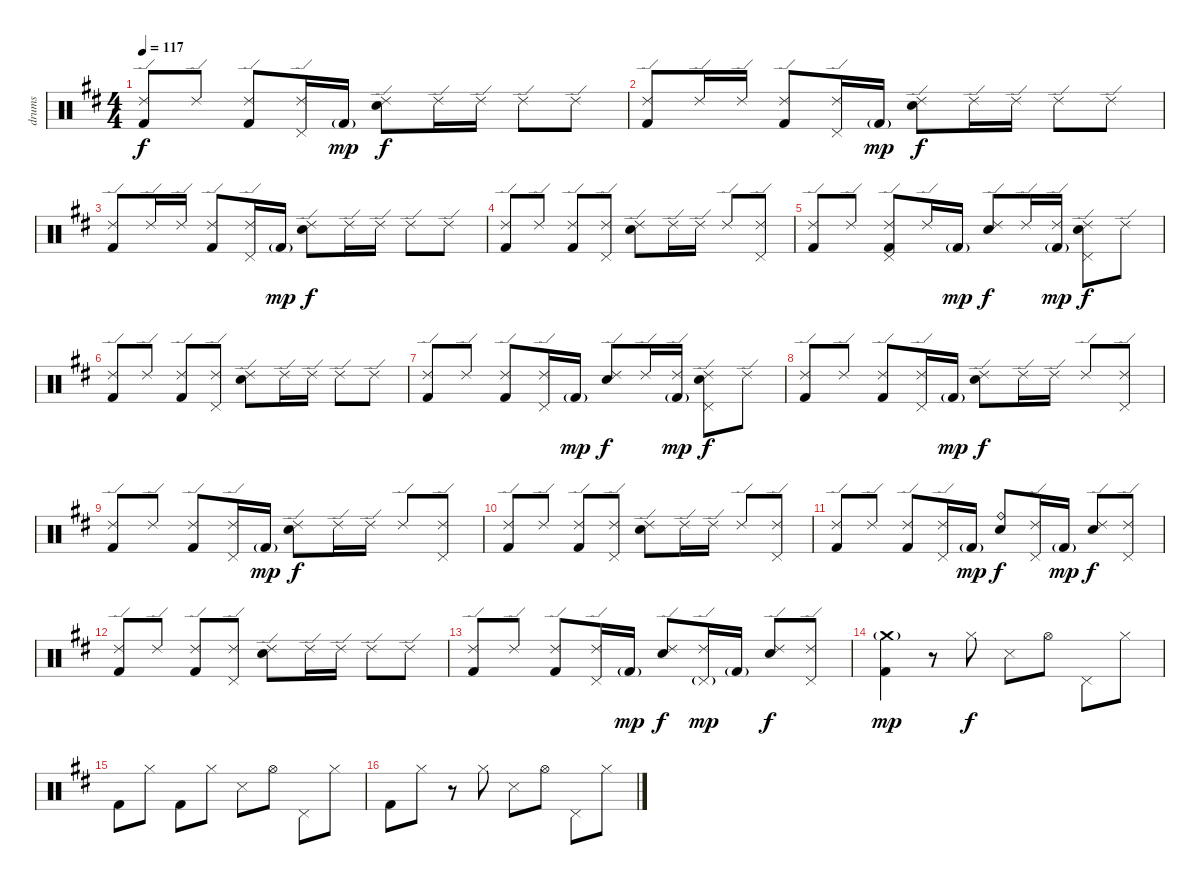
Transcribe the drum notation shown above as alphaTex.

\track ("drums" "drums") {instrument percussion}
\staff {score}
\articulation defaults
\ts (4 4)
\tempo 117
\clef neutral
\ks d
("Ride (edge) 2" "Kick (hit) 2").8{dy f} "Ride (edge) 2".8 ("Ride (edge) 2" "Kick (hit) 2").8 ("Ride (edge) 2" "Pedal Hi-Hat (hit)").16 "Kick (hit) 2"{g}.16{dy mp} ("Ride (edge) 2" "Electric Snare (hit)").8{dy f} "Ride (edge) 2".16 "Ride (edge) 2".16 "Ride (edge) 2".8 "Ride (edge) 2".8 |
("Ride (edge) 2" "Kick (hit) 2").8 "Ride (edge) 2".16 "Ride (edge) 2".16 ("Ride (edge) 2" "Kick (hit) 2").8 ("Ride (edge) 2" "Pedal Hi-Hat (hit)").16 "Kick (hit) 2"{g}.16{dy mp} ("Ride (edge) 2" "Electric Snare (hit)").8{dy f} "Ride (edge) 2".16 "Ride (edge) 2".16 "Ride (edge) 2".8 "Ride (edge) 2".8 |
("Ride (edge) 2" "Kick (hit) 2").8 "Ride (edge) 2".16 "Ride (edge) 2".16 ("Ride (edge) 2" "Kick (hit) 2").8 ("Ride (edge) 2" "Pedal Hi-Hat (hit)").16 "Kick (hit) 2"{g}.16{dy mp} ("Ride (edge) 2" "Electric Snare (hit)").8{dy f} "Ride (edge) 2".16 "Ride (edge) 2".16 "Ride (edge) 2".8 "Ride (edge) 2".8 |
("Ride (edge) 2" "Kick (hit) 2").8 "Ride (edge) 2".8 ("Ride (edge) 2" "Kick (hit) 2").8 ("Ride (edge) 2" "Pedal Hi-Hat (hit)").8 ("Ride (edge) 2" "Electric Snare (hit)").8 "Ride (edge) 2".16 "Ride (edge) 2".16 "Ride (edge) 2".8 ("Ride (edge) 2" "Pedal Hi-Hat (hit)").8 |
("Ride (edge) 2" "Kick (hit) 2").8 "Ride (edge) 2".8 ("Ride (edge) 2" "Pedal Hi-Hat (hit)" "Kick (hit) 2").8 "Ride (edge) 2".16 "Kick (hit) 2"{g}.16{dy mp} ("Ride (edge) 2" "Electric Snare (hit)").8{dy f} "Ride (edge) 2".16 ("Ride (edge) 2" "Kick (hit) 2"{g}).16{dy mp} ("Ride (edge) 2" "Pedal Hi-Hat (hit)" "Electric Snare (hit)").8{dy f} "Ride (edge) 2".8 |
("Ride (edge) 2" "Kick (hit) 2").8 "Ride (edge) 2".8 ("Ride (edge) 2" "Kick (hit) 2").8 ("Ride (edge) 2" "Pedal Hi-Hat (hit)").8 ("Ride (edge) 2" "Electric Snare (hit)").8 "Ride (edge) 2".16 "Ride (edge) 2".16 "Ride (edge) 2".8 "Ride (edge) 2".8 |
("Ride (edge) 2" "Kick (hit) 2").8 "Ride (edge) 2".8 ("Ride (edge) 2" "Kick (hit) 2").8 ("Ride (edge) 2" "Pedal Hi-Hat (hit)").16 "Kick (hit) 2"{g}.16{dy mp} ("Ride (edge) 2" "Electric Snare (hit)").8{dy f} "Ride (edge) 2".16 ("Ride (edge) 2" "Kick (hit) 2"{g}).16{dy mp} ("Ride (edge) 2" "Pedal Hi-Hat (hit)" "Electric Snare (hit)").8{dy f} "Ride (edge) 2".8 |
("Ride (edge) 2" "Kick (hit) 2").8 "Ride (edge) 2".8 ("Ride (edge) 2" "Kick (hit) 2").8 ("Ride (edge) 2" "Pedal Hi-Hat (hit)").16 "Kick (hit) 2"{g}.16{dy mp} ("Ride (edge) 2" "Electric Snare (hit)").8{dy f} "Ride (edge) 2".16 "Ride (edge) 2".16 "Ride (edge) 2".8 ("Ride (edge) 2" "Pedal Hi-Hat (hit)").8 |
("Ride (edge) 2" "Kick (hit) 2").8 "Ride (edge) 2".8 ("Ride (edge) 2" "Kick (hit) 2").8 ("Ride (edge) 2" "Pedal Hi-Hat (hit)").16 "Kick (hit) 2"{g}.16{dy mp} ("Ride (edge) 2" "Electric Snare (hit)").8{dy f} "Ride (edge) 2".16 "Ride (edge) 2".16 "Ride (edge) 2".8 ("Ride (edge) 2" "Pedal Hi-Hat (hit)").8 |
("Ride (edge) 2" "Kick (hit) 2").8 "Ride (edge) 2".8 ("Ride (edge) 2" "Kick (hit) 2").8 ("Ride (edge) 2" "Pedal Hi-Hat (hit)").8 ("Ride (edge) 2" "Electric Snare (hit)").8 "Ride (edge) 2".16 "Ride (edge) 2".16 "Ride (edge) 2".8 ("Ride (edge) 2" "Pedal Hi-Hat (hit)").8 |
("Ride (edge) 2" "Kick (hit) 2").8 "Ride (edge) 2".8 ("Ride (edge) 2" "Kick (hit) 2").8 ("Ride (edge) 2" "Pedal Hi-Hat (hit)").16 "Kick (hit) 2"{g}.16{dy mp} ("Ride (bell)" "Electric Snare (hit)").8{dy f} ("Ride (edge) 2" "Pedal Hi-Hat (hit)").16 "Kick (hit) 2"{g}.16{dy mp} ("Ride (edge) 2" "Electric Snare (hit)").8{dy f} ("Ride (edge) 2" "Pedal Hi-Hat (hit)").8 |
("Ride (edge) 2" "Kick (hit) 2").8 "Ride (edge) 2".8 ("Ride (edge) 2" "Kick (hit) 2").8 ("Ride (edge) 2" "Pedal Hi-Hat (hit)").8 ("Ride (edge) 2" "Electric Snare (hit)").8 "Ride (edge) 2".16 "Ride (edge) 2".16 "Ride (edge) 2".8 "Ride (edge) 2".8 |
("Ride (edge) 2" "Kick (hit) 2").8 "Ride (edge) 2".8 ("Ride (edge) 2" "Kick (hit) 2").8 ("Ride (edge) 2" "Pedal Hi-Hat (hit)").16 "Kick (hit) 2"{g}.16{dy mp} ("Ride (edge) 2" "Electric Snare (hit)").8{dy f} ("Ride (edge) 2" "Pedal Hi-Hat (hit)"{g}).16{dy mp} "Kick (hit) 2"{g}.16 ("Ride (edge) 2" "Electric Snare (hit)").8{dy f} ("Ride (edge) 2" "Pedal Hi-Hat (hit)").8 |
("Crash medium (hit)"{g} "Kick (hit) 2").4{dy mp} r.8 "Hi-Hat (closed)".8{dy f} "Snare (side stick) 3".8 "Hi-Hat (open)".8 "Pedal Hi-Hat (hit)".8 "Hi-Hat (closed)".8 |
"Kick (hit) 2".8 "Hi-Hat (closed)".8 "Kick (hit) 2".8 "Hi-Hat (closed)".8 "Snare (side stick) 3".8 "Hi-Hat (open)".8 "Pedal Hi-Hat (hit)".8 "Hi-Hat (closed)".8 |
"Kick (hit) 2".8 "Hi-Hat (closed)".8 r.8 "Hi-Hat (closed)".8 "Snare (side stick) 3".8 "Hi-Hat (open)".8 "Pedal Hi-Hat (hit)".8 "Hi-Hat (closed)".8
